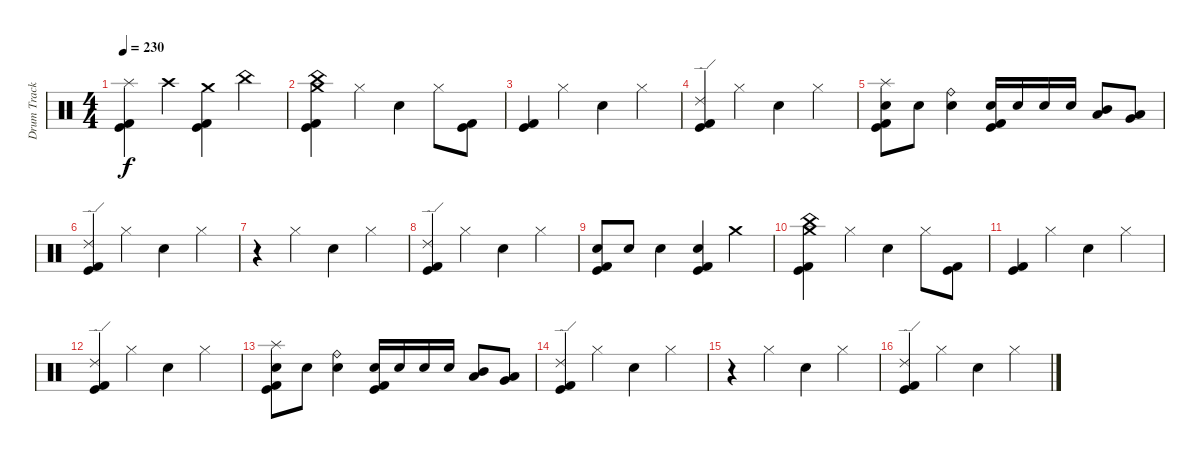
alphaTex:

\track ("Drum Track" "Drum Track") {instrument percussion}
\staff {score}
\articulation defaults
\ts (4 4)
\tempo 230
\clef neutral
\ks c
("Splash (hit)" "Kick (hit) 2" "Kick (hit)").4{dy f} "Crash high (hit)".4 ("Crash medium (hit)" "Kick (hit) 2" "Kick (hit)").4 "China (hit)".4 |
("China (hit)" "Crash medium (hit)" "Kick (hit) 2" "Kick (hit)").4 "Hi-Hat (closed)".4 "Electric Snare (hit)".4 "Hi-Hat (closed)".8 ("Kick (hit) 2" "Kick (hit)").8 |
("Kick (hit) 2" "Kick (hit)").4 "Hi-Hat (closed)".4 "Electric Snare (hit)".4 "Hi-Hat (closed)".4 |
("Ride (edge) 2" "Kick (hit) 2" "Kick (hit)").4 "Hi-Hat (closed)".4 "Electric Snare (hit)".4 "Hi-Hat (closed)".4 |
("Splash (hit)" "Electric Snare (hit)" "Kick (hit) 2" "Kick (hit)").8 "Electric Snare (hit)".8 ("Ride (bell)" "Electric Snare (hit)").4 ("Electric Snare (hit)" "Kick (hit) 2" "Kick (hit)").16 "Electric Snare (hit)".16 "Electric Snare (hit)".16 "Electric Snare (hit)".16 ("Mid Tom (hit)" "Low Tom (hit)").8 ("Low Tom (hit)" "Very Low Tom (hit)").8 |
("Ride (edge) 2" "Kick (hit) 2" "Kick (hit)").4 "Hi-Hat (closed)".4 "Electric Snare (hit)".4 "Hi-Hat (closed)".4 |
r.4 "Hi-Hat (closed)".4 "Electric Snare (hit)".4 "Hi-Hat (closed)".4 |
("Ride (edge) 2" "Kick (hit) 2" "Kick (hit)").4 "Hi-Hat (closed)".4 "Electric Snare (hit)".4 "Hi-Hat (closed)".4 |
("Electric Snare (hit)" "Kick (hit) 2" "Kick (hit)").8 "Electric Snare (hit)".8 "Electric Snare (hit)".4 ("Electric Snare (hit)" "Kick (hit) 2" "Kick (hit)").4 "Crash medium (hit)".4 |
("China (hit)" "Crash medium (hit)" "Kick (hit) 2" "Kick (hit)").4 "Hi-Hat (closed)".4 "Electric Snare (hit)".4 "Hi-Hat (closed)".8 ("Kick (hit) 2" "Kick (hit)").8 |
("Kick (hit) 2" "Kick (hit)").4 "Hi-Hat (closed)".4 "Electric Snare (hit)".4 "Hi-Hat (closed)".4 |
("Ride (edge) 2" "Kick (hit) 2" "Kick (hit)").4 "Hi-Hat (closed)".4 "Electric Snare (hit)".4 "Hi-Hat (closed)".4 |
("Splash (hit)" "Electric Snare (hit)" "Kick (hit) 2" "Kick (hit)").8 "Electric Snare (hit)".8 ("Ride (bell)" "Electric Snare (hit)").4 ("Electric Snare (hit)" "Kick (hit) 2" "Kick (hit)").16 "Electric Snare (hit)".16 "Electric Snare (hit)".16 "Electric Snare (hit)".16 ("Mid Tom (hit)" "Low Tom (hit)").8 ("Low Tom (hit)" "Very Low Tom (hit)").8 |
("Ride (edge) 2" "Kick (hit) 2" "Kick (hit)").4 "Hi-Hat (closed)".4 "Electric Snare (hit)".4 "Hi-Hat (closed)".4 |
r.4 "Hi-Hat (closed)".4 "Electric Snare (hit)".4 "Hi-Hat (closed)".4 |
("Ride (edge) 2" "Kick (hit) 2" "Kick (hit)").4 "Hi-Hat (closed)".4 "Electric Snare (hit)".4 "Hi-Hat (closed)".4
